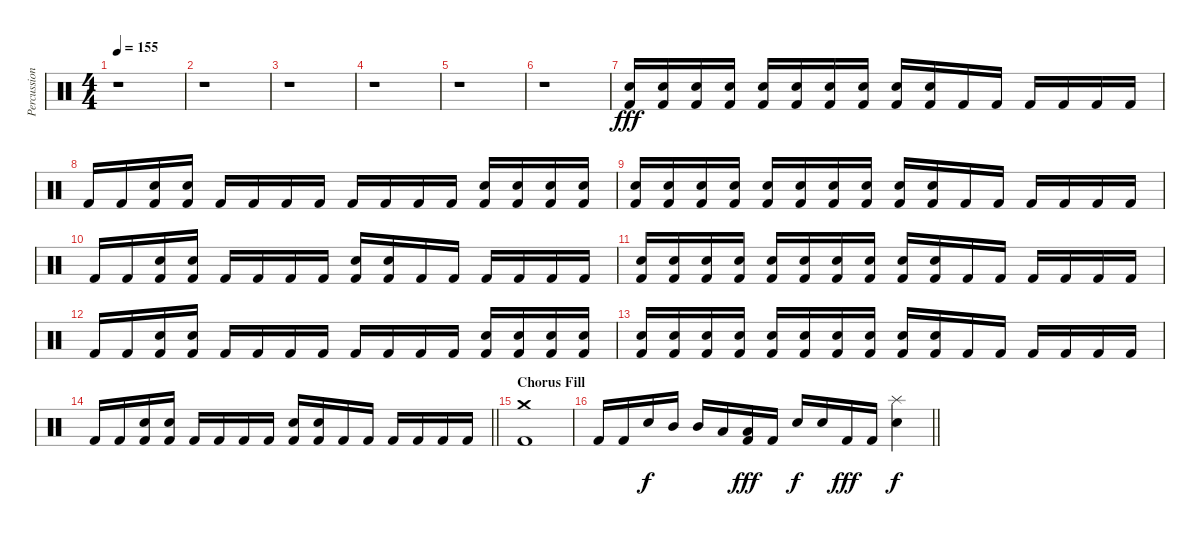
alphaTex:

\track ("Percussion" "Percussion") {instrument percussion}
\staff {score}
\articulation defaults
\ts (4 4)
\tempo 155
\clef neutral
\ks c
r.1{dy fff} |
r.1 |
r.1 |
r.1 |
r.1 |
r.1 |
("Electric Snare (hit)" "Kick (hit) 2").16 ("Electric Snare (hit)" "Kick (hit) 2").16 ("Electric Snare (hit)" "Kick (hit) 2").16 ("Electric Snare (hit)" "Kick (hit) 2").16 ("Electric Snare (hit)" "Kick (hit) 2").16 ("Electric Snare (hit)" "Kick (hit) 2").16 ("Electric Snare (hit)" "Kick (hit) 2").16 ("Electric Snare (hit)" "Kick (hit) 2").16 ("Electric Snare (hit)" "Kick (hit) 2").16 ("Electric Snare (hit)" "Kick (hit) 2").16 "Kick (hit) 2".16 "Kick (hit) 2".16 "Kick (hit) 2".16 "Kick (hit) 2".16 "Kick (hit) 2".16 "Kick (hit) 2".16 |
"Kick (hit) 2".16 "Kick (hit) 2".16 ("Electric Snare (hit)" "Kick (hit) 2").16 ("Electric Snare (hit)" "Kick (hit) 2").16 "Kick (hit) 2".16 "Kick (hit) 2".16 "Kick (hit) 2".16 "Kick (hit) 2".16 "Kick (hit) 2".16 "Kick (hit) 2".16 "Kick (hit) 2".16 "Kick (hit) 2".16 ("Electric Snare (hit)" "Kick (hit) 2").16 ("Electric Snare (hit)" "Kick (hit) 2").16 ("Electric Snare (hit)" "Kick (hit) 2").16 ("Electric Snare (hit)" "Kick (hit) 2").16 |
("Electric Snare (hit)" "Kick (hit) 2").16 ("Electric Snare (hit)" "Kick (hit) 2").16 ("Electric Snare (hit)" "Kick (hit) 2").16 ("Electric Snare (hit)" "Kick (hit) 2").16 ("Electric Snare (hit)" "Kick (hit) 2").16 ("Electric Snare (hit)" "Kick (hit) 2").16 ("Electric Snare (hit)" "Kick (hit) 2").16 ("Electric Snare (hit)" "Kick (hit) 2").16 ("Electric Snare (hit)" "Kick (hit) 2").16 ("Electric Snare (hit)" "Kick (hit) 2").16 "Kick (hit) 2".16 "Kick (hit) 2".16 "Kick (hit) 2".16 "Kick (hit) 2".16 "Kick (hit) 2".16 "Kick (hit) 2".16 |
"Kick (hit) 2".16 "Kick (hit) 2".16 ("Electric Snare (hit)" "Kick (hit) 2").16 ("Electric Snare (hit)" "Kick (hit) 2").16 "Kick (hit) 2".16 "Kick (hit) 2".16 "Kick (hit) 2".16 "Kick (hit) 2".16 ("Electric Snare (hit)" "Kick (hit) 2").16 ("Electric Snare (hit)" "Kick (hit) 2").16 "Kick (hit) 2".16 "Kick (hit) 2".16 "Kick (hit) 2".16 "Kick (hit) 2".16 "Kick (hit) 2".16 "Kick (hit) 2".16 |
("Electric Snare (hit)" "Kick (hit) 2").16 ("Electric Snare (hit)" "Kick (hit) 2").16 ("Electric Snare (hit)" "Kick (hit) 2").16 ("Electric Snare (hit)" "Kick (hit) 2").16 ("Electric Snare (hit)" "Kick (hit) 2").16 ("Electric Snare (hit)" "Kick (hit) 2").16 ("Electric Snare (hit)" "Kick (hit) 2").16 ("Electric Snare (hit)" "Kick (hit) 2").16 ("Electric Snare (hit)" "Kick (hit) 2").16 ("Electric Snare (hit)" "Kick (hit) 2").16 "Kick (hit) 2".16 "Kick (hit) 2".16 "Kick (hit) 2".16 "Kick (hit) 2".16 "Kick (hit) 2".16 "Kick (hit) 2".16 |
"Kick (hit) 2".16 "Kick (hit) 2".16 ("Electric Snare (hit)" "Kick (hit) 2").16 ("Electric Snare (hit)" "Kick (hit) 2").16 "Kick (hit) 2".16 "Kick (hit) 2".16 "Kick (hit) 2".16 "Kick (hit) 2".16 "Kick (hit) 2".16 "Kick (hit) 2".16 "Kick (hit) 2".16 "Kick (hit) 2".16 ("Electric Snare (hit)" "Kick (hit) 2").16 ("Electric Snare (hit)" "Kick (hit) 2").16 ("Electric Snare (hit)" "Kick (hit) 2").16 ("Electric Snare (hit)" "Kick (hit) 2").16 |
("Electric Snare (hit)" "Kick (hit) 2").16 ("Electric Snare (hit)" "Kick (hit) 2").16 ("Electric Snare (hit)" "Kick (hit) 2").16 ("Electric Snare (hit)" "Kick (hit) 2").16 ("Electric Snare (hit)" "Kick (hit) 2").16 ("Electric Snare (hit)" "Kick (hit) 2").16 ("Electric Snare (hit)" "Kick (hit) 2").16 ("Electric Snare (hit)" "Kick (hit) 2").16 ("Electric Snare (hit)" "Kick (hit) 2").16 ("Electric Snare (hit)" "Kick (hit) 2").16 "Kick (hit) 2".16 "Kick (hit) 2".16 "Kick (hit) 2".16 "Kick (hit) 2".16 "Kick (hit) 2".16 "Kick (hit) 2".16 |
\barLineRight lightlight "Kick (hit) 2".16 "Kick (hit) 2".16
("Electric Snare (hit)" "Kick (hit) 2").16 ("Electric Snare (hit)" "Kick (hit) 2").16 "Kick (hit) 2".16 "Kick (hit) 2".16 "Kick (hit) 2".16 "Kick (hit) 2".16 ("Electric Snare (hit)" "Kick (hit) 2").16 ("Electric Snare (hit)" "Kick (hit) 2").16 "Kick (hit) 2".16 "Kick (hit) 2".16 "Kick (hit) 2".16 "Kick (hit) 2".16 "Kick (hit) 2".16 "Kick (hit) 2".16 |
\section ("" "Chorus Fill")
("Crash medium (hit)" "Kick (hit) 2").1 |
\barLineRight lightlight "Kick (hit) 2".16 "Kick (hit) 2".16 "Electric Snare (hit)".16{dy f} "Mid Tom (hit)".16 "Mid Tom (hit)".16 "Low Tom (hit)".16
("Low Tom (hit)" "Kick (hit) 2").16{dy fff} "Kick (hit) 2".16 "Electric Snare (hit)".16{dy f} "Electric Snare (hit)".16 "Kick (hit) 2".16{dy fff} "Kick (hit) 2".16 ("Splash (hit)" "Electric Snare (hit)").4{dy f}
